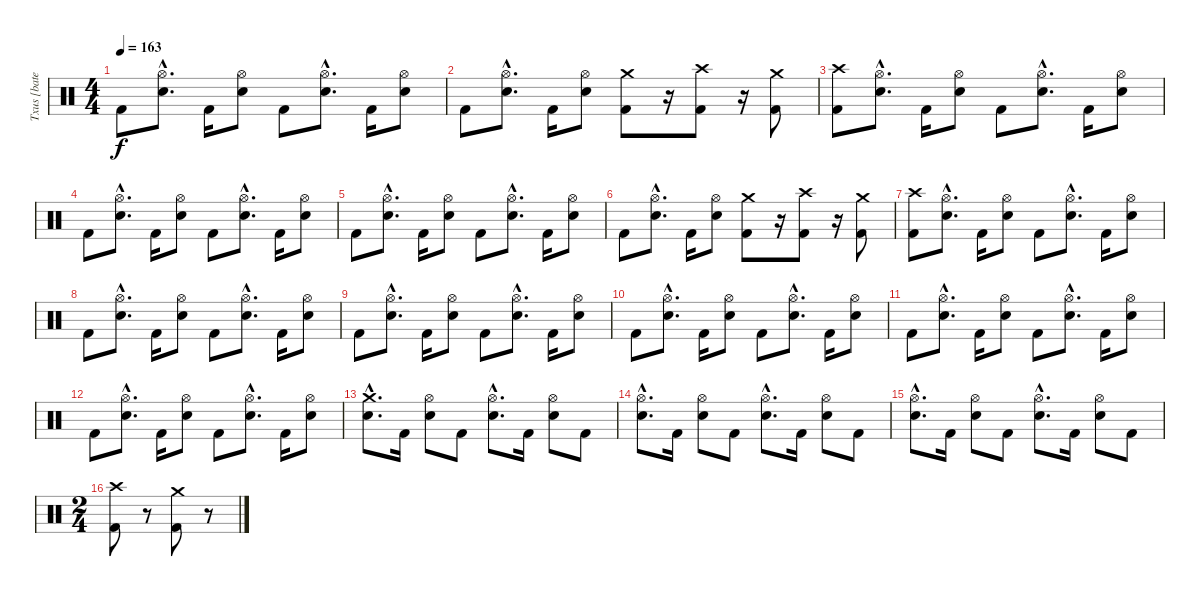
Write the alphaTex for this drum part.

\track ("Txus [bateria]" "Txus [bate") {instrument percussion}
\staff {score}
\articulation defaults
\ts (4 4)
\tempo 163
\clef neutral
\ks c "Kick (hit) 2".8{dy f}
("Hi-Hat (open)"{hac} "Snare (hit) 2"{hac}).8{d} "Kick (hit) 2".16 ("Hi-Hat (open)" "Snare (hit) 2").8 "Kick (hit) 2".8 ("Hi-Hat (open)"{hac} "Snare (hit) 2"{hac}).8{d} "Kick (hit) 2".16 ("Hi-Hat (open)" "Snare (hit) 2").8 |
"Kick (hit) 2".8 ("Hi-Hat (open)"{hac} "Snare (hit) 2"{hac}).8{d} "Kick (hit) 2".16 ("Hi-Hat (open)" "Snare (hit) 2").8 ("Crash medium (hit)" "Kick (hit) 2").8 r.16{volume 0} ("Crash high (hit)" "Kick (hit) 2").8{volume 13} r.16{volume 0} ("Crash medium (hit)" "Kick (hit) 2").8{volume 13} |
("Crash high (hit)" "Kick (hit) 2").8 ("Hi-Hat (open)"{hac} "Snare (hit) 2"{hac}).8{d} "Kick (hit) 2".16 ("Hi-Hat (open)" "Snare (hit) 2").8 "Kick (hit) 2".8 ("Hi-Hat (open)"{hac} "Snare (hit) 2"{hac}).8{d} "Kick (hit) 2".16 ("Hi-Hat (open)" "Snare (hit) 2").8 |
"Kick (hit) 2".8 ("Hi-Hat (open)"{hac} "Snare (hit) 2"{hac}).8{d} "Kick (hit) 2".16 ("Hi-Hat (open)" "Snare (hit) 2").8 "Kick (hit) 2".8 ("Hi-Hat (open)"{hac} "Snare (hit) 2"{hac}).8{d} "Kick (hit) 2".16 ("Hi-Hat (open)" "Snare (hit) 2").8 |
"Kick (hit) 2".8 ("Hi-Hat (open)"{hac} "Snare (hit) 2"{hac}).8{d} "Kick (hit) 2".16 ("Hi-Hat (open)" "Snare (hit) 2").8 "Kick (hit) 2".8 ("Hi-Hat (open)"{hac} "Snare (hit) 2"{hac}).8{d} "Kick (hit) 2".16 ("Hi-Hat (open)" "Snare (hit) 2").8 |
"Kick (hit) 2".8 ("Hi-Hat (open)"{hac} "Snare (hit) 2"{hac}).8{d} "Kick (hit) 2".16 ("Hi-Hat (open)" "Snare (hit) 2").8 ("Crash medium (hit)" "Kick (hit) 2").8 r.16{volume 0} ("Crash high (hit)" "Kick (hit) 2").8{volume 13} r.16{volume 0} ("Crash medium (hit)" "Kick (hit) 2").8{volume 13} |
("Crash high (hit)" "Kick (hit) 2").8 ("Hi-Hat (open)"{hac} "Snare (hit) 2"{hac}).8{d} "Kick (hit) 2".16 ("Hi-Hat (open)" "Snare (hit) 2").8 "Kick (hit) 2".8 ("Hi-Hat (open)"{hac} "Snare (hit) 2"{hac}).8{d} "Kick (hit) 2".16 ("Hi-Hat (open)" "Snare (hit) 2").8 |
"Kick (hit) 2".8 ("Hi-Hat (open)"{hac} "Snare (hit) 2"{hac}).8{d} "Kick (hit) 2".16 ("Hi-Hat (open)" "Snare (hit) 2").8 "Kick (hit) 2".8 ("Hi-Hat (open)"{hac} "Snare (hit) 2"{hac}).8{d} "Kick (hit) 2".16 ("Hi-Hat (open)" "Snare (hit) 2").8 |
"Kick (hit) 2".8 ("Hi-Hat (open)"{hac} "Snare (hit) 2"{hac}).8{d} "Kick (hit) 2".16 ("Hi-Hat (open)" "Snare (hit) 2").8 "Kick (hit) 2".8 ("Hi-Hat (open)"{hac} "Snare (hit) 2"{hac}).8{d} "Kick (hit) 2".16 ("Hi-Hat (open)" "Snare (hit) 2").8 |
"Kick (hit) 2".8 ("Hi-Hat (open)"{hac} "Snare (hit) 2"{hac}).8{d} "Kick (hit) 2".16 ("Hi-Hat (open)" "Snare (hit) 2").8 "Kick (hit) 2".8 ("Hi-Hat (open)"{hac} "Snare (hit) 2"{hac}).8{d} "Kick (hit) 2".16 ("Hi-Hat (open)" "Snare (hit) 2").8 |
"Kick (hit) 2".8 ("Hi-Hat (open)"{hac} "Snare (hit) 2"{hac}).8{d} "Kick (hit) 2".16 ("Hi-Hat (open)" "Snare (hit) 2").8 "Kick (hit) 2".8 ("Hi-Hat (open)"{hac} "Snare (hit) 2"{hac}).8{d} "Kick (hit) 2".16 ("Hi-Hat (open)" "Snare (hit) 2").8 |
"Kick (hit) 2".8 ("Hi-Hat (open)"{hac} "Snare (hit) 2"{hac}).8{d} "Kick (hit) 2".16 ("Hi-Hat (open)" "Snare (hit) 2").8 "Kick (hit) 2".8 ("Hi-Hat (open)"{hac} "Snare (hit) 2"{hac}).8{d} "Kick (hit) 2".16 ("Hi-Hat (open)" "Snare (hit) 2").8 |
("Crash medium (hit)"{hac} "Snare (hit) 2"{hac}).8{d} "Kick (hit) 2".16 ("Hi-Hat (open)" "Snare (hit) 2").8 "Kick (hit) 2".8 ("Hi-Hat (open)"{hac} "Snare (hit) 2"{hac}).8{d} "Kick (hit) 2".16 ("Hi-Hat (open)" "Snare (hit) 2").8 "Kick (hit) 2".8 |
("Hi-Hat (open)"{hac} "Snare (hit) 2"{hac}).8{d} "Kick (hit) 2".16 ("Hi-Hat (open)" "Snare (hit) 2").8 "Kick (hit) 2".8 ("Hi-Hat (open)"{hac} "Snare (hit) 2"{hac}).8{d} "Kick (hit) 2".16 ("Hi-Hat (open)" "Snare (hit) 2").8 "Kick (hit) 2".8 |
("Hi-Hat (open)"{hac} "Snare (hit) 2"{hac}).8{d} "Kick (hit) 2".16 ("Hi-Hat (open)" "Snare (hit) 2").8 "Kick (hit) 2".8 ("Hi-Hat (open)"{hac} "Snare (hit) 2"{hac}).8{d} "Kick (hit) 2".16 ("Hi-Hat (open)" "Snare (hit) 2").8 "Kick (hit) 2".8 |
\ts (2 4)
("Crash high (hit)" "Kick (hit) 2").8 r.8{volume 0} ("Crash medium (hit)" "Kick (hit) 2").8{volume 13} r.8{volume 0}
